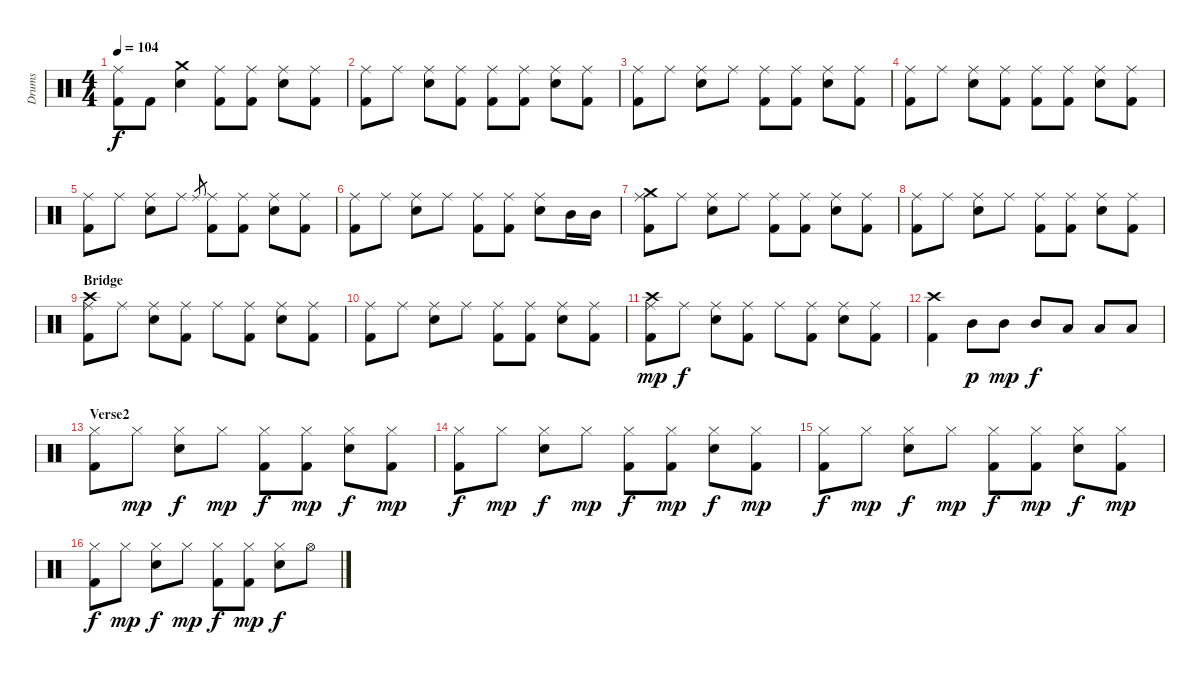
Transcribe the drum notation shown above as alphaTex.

\track ("Drums" "Drums") {instrument percussion}
\staff {score}
\articulation defaults
\ts (4 4)
\tempo 104
\clef neutral
\ks c
("Ride (middle)" "Kick (hit) 2").8{dy f} "Kick (hit) 2".8 ("Crash medium (hit)" "Electric Snare (hit)").4 ("Ride (middle)" "Kick (hit) 2").8 ("Ride (middle)" "Kick (hit) 2").8 ("Ride (middle)" "Electric Snare (hit)").8 ("Ride (middle)" "Kick (hit) 2").8 |
("Ride (middle)" "Kick (hit) 2").8 "Ride (middle)".8 ("Ride (middle)" "Electric Snare (hit)").8 ("Ride (middle)" "Kick (hit) 2").8 ("Ride (middle)" "Kick (hit) 2").8 ("Ride (middle)" "Kick (hit) 2").8 ("Ride (middle)" "Electric Snare (hit)").8 ("Ride (middle)" "Kick (hit) 2").8 |
("Ride (middle)" "Kick (hit) 2").8 "Ride (middle)".8 ("Ride (middle)" "Electric Snare (hit)").8 "Ride (middle)".8 ("Ride (middle)" "Kick (hit) 2").8 ("Ride (middle)" "Kick (hit) 2").8 ("Ride (middle)" "Electric Snare (hit)").8 ("Ride (middle)" "Kick (hit) 2").8 |
("Ride (middle)" "Kick (hit) 2").8 "Ride (middle)".8 ("Ride (middle)" "Electric Snare (hit)").8 ("Ride (middle)" "Kick (hit) 2").8 ("Ride (middle)" "Kick (hit) 2").8 ("Ride (middle)" "Kick (hit) 2").8 ("Ride (middle)" "Electric Snare (hit)").8 ("Ride (middle)" "Kick (hit) 2").8 |
("Ride (middle)" "Kick (hit) 2").8 "Ride (middle)".8 ("Ride (middle)" "Electric Snare (hit)").8 "Ride (middle)".8 "Ride (middle)".8{gr} ("Ride (middle)" "Kick (hit) 2").8 ("Ride (middle)" "Kick (hit) 2").8 ("Ride (middle)" "Electric Snare (hit)").8 ("Ride (middle)" "Kick (hit) 2").8 |
("Ride (middle)" "Kick (hit) 2").8 "Ride (middle)".8 ("Ride (middle)" "Electric Snare (hit)").8 "Ride (middle)".8 ("Ride (middle)" "Kick (hit) 2").8 ("Ride (middle)" "Kick (hit) 2").8 ("Ride (middle)" "Electric Snare (hit)").8 "Mid Tom (hit)".16 "Mid Tom (hit)".16 |
("Crash medium (hit)" "Ride (middle)" "Kick (hit) 2").8 "Ride (middle)".8 ("Ride (middle)" "Electric Snare (hit)").8 "Ride (middle)".8 ("Ride (middle)" "Kick (hit) 2").8 ("Ride (middle)" "Kick (hit) 2").8 ("Ride (middle)" "Electric Snare (hit)").8 ("Ride (middle)" "Kick (hit) 2").8 |
("Ride (middle)" "Kick (hit) 2").8 "Ride (middle)".8 ("Ride (middle)" "Electric Snare (hit)").8 "Ride (middle)".8 ("Ride (middle)" "Kick (hit) 2").8 ("Ride (middle)" "Kick (hit) 2").8 ("Ride (middle)" "Electric Snare (hit)").8 ("Ride (middle)" "Kick (hit) 2").8 |
\section ("" "Bridge")
("Crash high (hit)" "Ride (middle)" "Kick (hit) 2").8 "Ride (middle)".8 ("Ride (middle)" "Electric Snare (hit)").8 ("Ride (middle)" "Kick (hit) 2").8 "Ride (middle)".8 ("Ride (middle)" "Kick (hit) 2").8 ("Ride (middle)" "Electric Snare (hit)").8 ("Ride (middle)" "Kick (hit) 2").8 |
("Ride (middle)" "Kick (hit) 2").8 "Ride (middle)".8 ("Ride (middle)" "Electric Snare (hit)").8 "Ride (middle)".8 ("Ride (middle)" "Kick (hit) 2").8 ("Ride (middle)" "Kick (hit) 2").8 ("Ride (middle)" "Electric Snare (hit)").8 ("Ride (middle)" "Kick (hit) 2").8 |
("Crash high (hit)" "Ride (middle)" "Kick (hit) 2").8{dy mp} "Ride (middle)".8{dy f} ("Ride (middle)" "Electric Snare (hit)").8 ("Ride (middle)" "Kick (hit) 2").8 "Ride (middle)".8 ("Ride (middle)" "Kick (hit) 2").8 ("Ride (middle)" "Electric Snare (hit)").8 ("Ride (middle)" "Kick (hit) 2").8 |
("Crash high (hit)" "Kick (hit) 2").4 "Mid Tom (hit)".8{dy p} "Mid Tom (hit)".8{dy mp} "Mid Tom (hit)".8{dy f} "Low Tom (hit)".8 "Low Tom (hit)".8 "Low Tom (hit)".8 |
\section ("" "Verse2")
("Hi-Hat (closed)" "Kick (hit) 2").8 "Hi-Hat (closed)".8{dy mp} ("Hi-Hat (closed)" "Electric Snare (hit)").8{dy f} "Hi-Hat (closed)".8{dy mp} ("Hi-Hat (closed)" "Kick (hit) 2").8{dy f} ("Hi-Hat (closed)" "Kick (hit) 2").8{dy mp} ("Hi-Hat (closed)" "Electric Snare (hit)").8{dy f} ("Hi-Hat (closed)" "Kick (hit) 2").8{dy mp} |
("Hi-Hat (closed)" "Kick (hit) 2").8{dy f} "Hi-Hat (closed)".8{dy mp} ("Hi-Hat (closed)" "Electric Snare (hit)").8{dy f} "Hi-Hat (closed)".8{dy mp} ("Hi-Hat (closed)" "Kick (hit) 2").8{dy f} ("Hi-Hat (closed)" "Kick (hit) 2").8{dy mp} ("Hi-Hat (closed)" "Electric Snare (hit)").8{dy f} ("Hi-Hat (closed)" "Kick (hit) 2").8{dy mp} |
("Hi-Hat (closed)" "Kick (hit) 2").8{dy f} "Hi-Hat (closed)".8{dy mp} ("Hi-Hat (closed)" "Electric Snare (hit)").8{dy f} "Hi-Hat (closed)".8{dy mp} ("Hi-Hat (closed)" "Kick (hit) 2").8{dy f} ("Hi-Hat (closed)" "Kick (hit) 2").8{dy mp} ("Hi-Hat (closed)" "Electric Snare (hit)").8{dy f} ("Hi-Hat (closed)" "Kick (hit) 2").8{dy mp} |
("Hi-Hat (closed)" "Kick (hit) 2").8{dy f} "Hi-Hat (closed)".8{dy mp} ("Hi-Hat (closed)" "Electric Snare (hit)").8{dy f} "Hi-Hat (closed)".8{dy mp} ("Hi-Hat (closed)" "Kick (hit) 2").8{dy f} ("Hi-Hat (closed)" "Kick (hit) 2").8{dy mp} ("Hi-Hat (closed)" "Electric Snare (hit)").8{dy f} "Hi-Hat (open)".8
